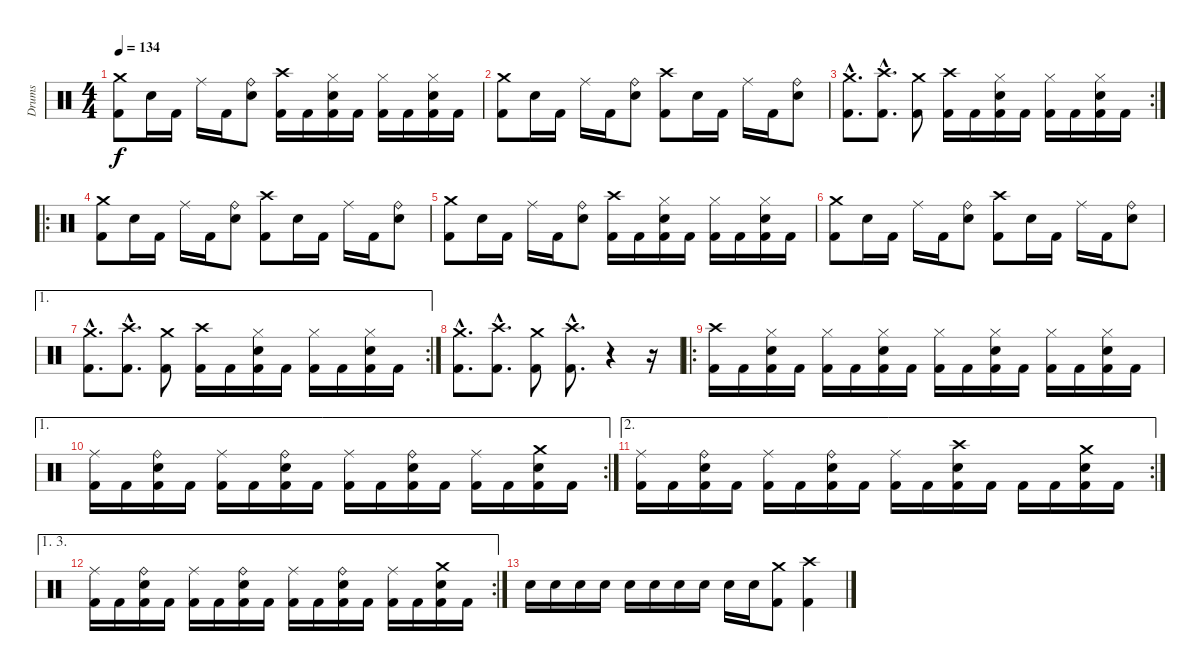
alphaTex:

\track ("Drums" "Drums") {instrument percussion}
\staff {score}
\articulation defaults
\ts (4 4)
\tempo 134
\clef neutral
\ks c
("Crash medium (hit)" "Kick (hit) 2").8{dy f} "Electric Snare (hit)".16 "Kick (hit) 2".16 "Ride (middle)".16 "Kick (hit) 2".16 ("Ride (bell)" "Electric Snare (hit)").8 ("Crash high (hit)" "Kick (hit) 2").16 "Kick (hit) 2".16 ("Hi-Hat (closed)" "Electric Snare (hit)" "Kick (hit) 2").16 "Kick (hit) 2".16 ("Hi-Hat (closed)" "Kick (hit) 2").16 "Kick (hit) 2".16 ("Hi-Hat (closed)" "Electric Snare (hit)" "Kick (hit) 2").16 "Kick (hit) 2".16 |
("Crash medium (hit)" "Kick (hit) 2").8 "Electric Snare (hit)".16 "Kick (hit) 2".16 "Ride (middle)".16 "Kick (hit) 2".16 ("Ride (bell)" "Electric Snare (hit)").8 ("Crash high (hit)" "Kick (hit) 2").8 "Electric Snare (hit)".16 "Kick (hit) 2".16 "Ride (middle)".16 "Kick (hit) 2".16 ("Ride (bell)" "Electric Snare (hit)").8 |
\rc 2
("Crash medium (hit)"{hac} "Kick (hit) 2"{hac}).8{d} ("Crash high (hit)"{hac} "Kick (hit) 2"{hac}).8{d} ("Crash medium (hit)" "Kick (hit) 2").8 ("Crash high (hit)" "Kick (hit) 2").16 "Kick (hit) 2".16 ("Hi-Hat (closed)" "Electric Snare (hit)" "Kick (hit) 2").16 "Kick (hit) 2".16 ("Hi-Hat (closed)" "Kick (hit) 2").16 "Kick (hit) 2".16 ("Hi-Hat (closed)" "Electric Snare (hit)" "Kick (hit) 2").16 "Kick (hit) 2".16 |
\ro
("Crash medium (hit)" "Kick (hit) 2").8 "Electric Snare (hit)".16 "Kick (hit) 2".16 "Ride (middle)".16 "Kick (hit) 2".16 ("Ride (bell)" "Electric Snare (hit)").8 ("Crash high (hit)" "Kick (hit) 2").8 "Electric Snare (hit)".16 "Kick (hit) 2".16 "Ride (middle)".16 "Kick (hit) 2".16 ("Ride (bell)" "Electric Snare (hit)").8 |
("Crash medium (hit)" "Kick (hit) 2").8 "Electric Snare (hit)".16 "Kick (hit) 2".16 "Ride (middle)".16 "Kick (hit) 2".16 ("Ride (bell)" "Electric Snare (hit)").8 ("Crash high (hit)" "Kick (hit) 2").16 "Kick (hit) 2".16 ("Hi-Hat (closed)" "Electric Snare (hit)" "Kick (hit) 2").16 "Kick (hit) 2".16 ("Hi-Hat (closed)" "Kick (hit) 2").16 "Kick (hit) 2".16 ("Hi-Hat (closed)" "Electric Snare (hit)" "Kick (hit) 2").16 "Kick (hit) 2".16 |
("Crash medium (hit)" "Kick (hit) 2").8 "Electric Snare (hit)".16 "Kick (hit) 2".16 "Ride (middle)".16 "Kick (hit) 2".16 ("Ride (bell)" "Electric Snare (hit)").8 ("Crash high (hit)" "Kick (hit) 2").8 "Electric Snare (hit)".16 "Kick (hit) 2".16 "Ride (middle)".16 "Kick (hit) 2".16 ("Ride (bell)" "Electric Snare (hit)").8 |
\ae 1
\rc 2
("Crash medium (hit)"{hac} "Kick (hit) 2"{hac}).8{d} ("Crash high (hit)"{hac} "Kick (hit) 2"{hac}).8{d} ("Crash medium (hit)" "Kick (hit) 2").8 ("Crash high (hit)" "Kick (hit) 2").16 "Kick (hit) 2".16 ("Hi-Hat (closed)" "Electric Snare (hit)" "Kick (hit) 2").16 "Kick (hit) 2".16 ("Hi-Hat (closed)" "Kick (hit) 2").16 "Kick (hit) 2".16 ("Hi-Hat (closed)" "Electric Snare (hit)" "Kick (hit) 2").16 "Kick (hit) 2".16 |
("Crash medium (hit)"{hac} "Kick (hit) 2"{hac}).8{d} ("Crash high (hit)"{hac} "Kick (hit) 2"{hac}).8{d} ("Crash medium (hit)" "Kick (hit) 2").8 ("Crash high (hit)"{hac} "Kick (hit) 2"{hac}).8{d} r.4 r.16 |
\ro
("Crash high (hit)" "Kick (hit) 2").16 "Kick (hit) 2".16 ("Hi-Hat (closed)" "Electric Snare (hit)" "Kick (hit) 2").16 "Kick (hit) 2".16 ("Hi-Hat (closed)" "Kick (hit) 2").16 "Kick (hit) 2".16 ("Hi-Hat (closed)" "Electric Snare (hit)" "Kick (hit) 2").16 "Kick (hit) 2".16 ("Hi-Hat (closed)" "Kick (hit) 2").16 "Kick (hit) 2".16 ("Hi-Hat (closed)" "Electric Snare (hit)" "Kick (hit) 2").16 "Kick (hit) 2".16 ("Hi-Hat (closed)" "Kick (hit) 2").16 "Kick (hit) 2".16 ("Hi-Hat (closed)" "Electric Snare (hit)" "Kick (hit) 2").16 "Kick (hit) 2".16 |
\ae 1
\rc 2
("Ride (middle)" "Kick (hit) 2").16 "Kick (hit) 2".16 ("Ride (bell)" "Electric Snare (hit)" "Kick (hit) 2").16 "Kick (hit) 2".16 ("Ride (middle)" "Kick (hit) 2").16 "Kick (hit) 2".16 ("Ride (bell)" "Electric Snare (hit)" "Kick (hit) 2").16 "Kick (hit) 2".16 ("Ride (middle)" "Kick (hit) 2").16 "Kick (hit) 2".16 ("Ride (bell)" "Electric Snare (hit)" "Kick (hit) 2").16 "Kick (hit) 2".16 ("Ride (middle)" "Kick (hit) 2").16 "Kick (hit) 2".16 ("Crash medium (hit)" "Electric Snare (hit)" "Kick (hit) 2").16 "Kick (hit) 2".16 |
\ae 2
\rc 2
("Ride (middle)" "Kick (hit) 2").16 "Kick (hit) 2".16 ("Ride (bell)" "Electric Snare (hit)" "Kick (hit) 2").16 "Kick (hit) 2".16 ("Ride (middle)" "Kick (hit) 2").16 "Kick (hit) 2".16 ("Ride (bell)" "Electric Snare (hit)" "Kick (hit) 2").16 "Kick (hit) 2".16 ("Ride (middle)" "Kick (hit) 2").16 "Kick (hit) 2".16 ("Crash high (hit)" "Electric Snare (hit)" "Kick (hit) 2").16 "Kick (hit) 2".16 "Kick (hit) 2".16 "Kick (hit) 2".16 ("Crash medium (hit)" "Electric Snare (hit)" "Kick (hit) 2").16 "Kick (hit) 2".16 |
\ae (1 3)
\rc 2
("Ride (middle)" "Kick (hit) 2").16 "Kick (hit) 2".16 ("Ride (bell)" "Electric Snare (hit)" "Kick (hit) 2").16 "Kick (hit) 2".16 ("Ride (middle)" "Kick (hit) 2").16 "Kick (hit) 2".16 ("Ride (bell)" "Electric Snare (hit)" "Kick (hit) 2").16 "Kick (hit) 2".16 ("Ride (middle)" "Kick (hit) 2").16 "Kick (hit) 2".16 ("Ride (bell)" "Electric Snare (hit)" "Kick (hit) 2").16 "Kick (hit) 2".16 ("Ride (middle)" "Kick (hit) 2").16 "Kick (hit) 2".16 ("Crash medium (hit)" "Electric Snare (hit)" "Kick (hit) 2").16 "Kick (hit) 2".16 |
"Electric Snare (hit)".16 "Electric Snare (hit)".16 "Electric Snare (hit)".16 "Electric Snare (hit)".16 "Electric Snare (hit)".16 "Electric Snare (hit)".16 "Electric Snare (hit)".16 "Electric Snare (hit)".16 "Electric Snare (hit)".16 "Electric Snare (hit)".16 ("Crash medium (hit)" "Kick (hit) 2").8 ("Crash high (hit)" "Kick (hit) 2").4
